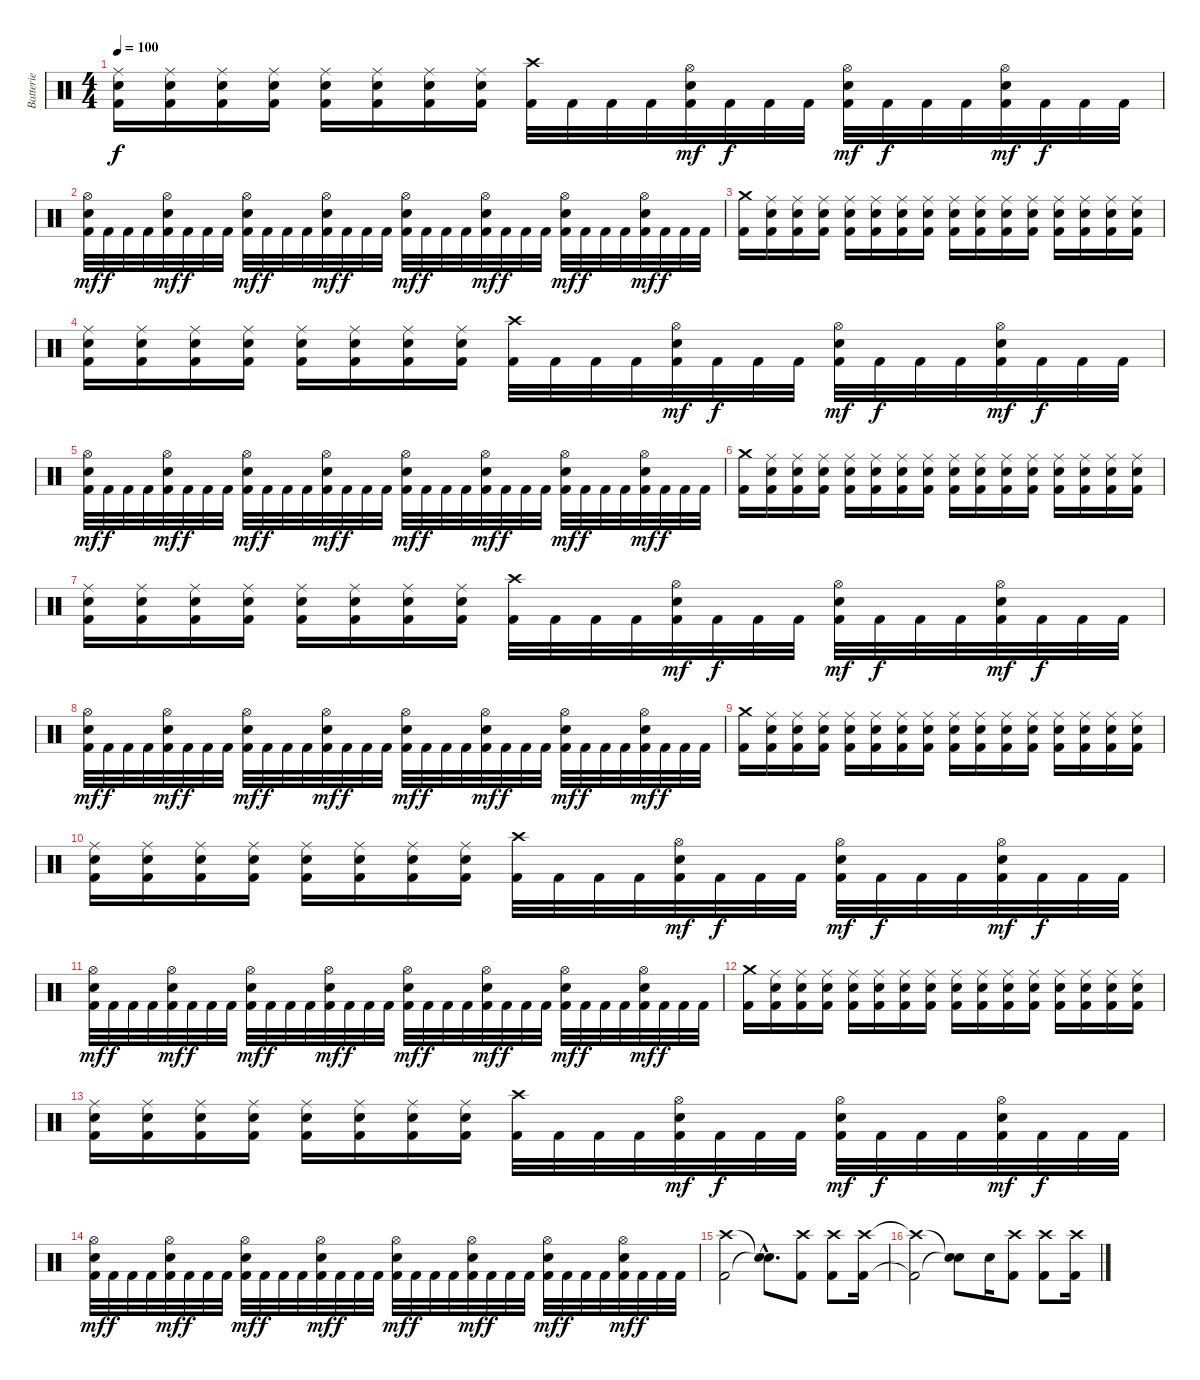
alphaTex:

\track ("Batterie" "Batterie") {instrument percussion}
\staff {score}
\articulation defaults
\ts (4 4)
\tempo 100
\clef neutral
\ks c
("Ride (middle)" "Electric Snare (hit)" "Kick (hit) 2").16{dy f} ("Ride (middle)" "Electric Snare (hit)" "Kick (hit) 2").16 ("Ride (middle)" "Electric Snare (hit)" "Kick (hit) 2").16 ("Ride (middle)" "Electric Snare (hit)" "Kick (hit) 2").16 ("Ride (middle)" "Electric Snare (hit)" "Kick (hit) 2").16 ("Ride (middle)" "Electric Snare (hit)" "Kick (hit) 2").16 ("Ride (middle)" "Electric Snare (hit)" "Kick (hit) 2").16 ("Ride (middle)" "Electric Snare (hit)" "Kick (hit) 2").16 ("Crash high (hit)" "Kick (hit) 2").32 "Kick (hit) 2".32 "Kick (hit) 2".32 "Kick (hit) 2".32 ("Hi-Hat (open)" "Electric Snare (hit)" "Kick (hit) 2").32{dy mf} "Kick (hit) 2".32{dy f} "Kick (hit) 2".32 "Kick (hit) 2".32 ("Hi-Hat (open)" "Electric Snare (hit)" "Kick (hit) 2").32{dy mf} "Kick (hit) 2".32{dy f} "Kick (hit) 2".32 "Kick (hit) 2".32 ("Hi-Hat (open)" "Electric Snare (hit)" "Kick (hit) 2").32{dy mf} "Kick (hit) 2".32{dy f} "Kick (hit) 2".32 "Kick (hit) 2".32 |
("Hi-Hat (open)" "Electric Snare (hit)" "Kick (hit) 2").32{dy mf} "Kick (hit) 2".32{dy f} "Kick (hit) 2".32 "Kick (hit) 2".32 ("Hi-Hat (open)" "Electric Snare (hit)" "Kick (hit) 2").32{dy mf} "Kick (hit) 2".32{dy f} "Kick (hit) 2".32 "Kick (hit) 2".32 ("Hi-Hat (open)" "Electric Snare (hit)" "Kick (hit) 2").32{dy mf} "Kick (hit) 2".32{dy f} "Kick (hit) 2".32 "Kick (hit) 2".32 ("Hi-Hat (open)" "Electric Snare (hit)" "Kick (hit) 2").32{dy mf} "Kick (hit) 2".32{dy f} "Kick (hit) 2".32 "Kick (hit) 2".32 ("Hi-Hat (open)" "Electric Snare (hit)" "Kick (hit) 2").32{dy mf} "Kick (hit) 2".32{dy f} "Kick (hit) 2".32 "Kick (hit) 2".32 ("Hi-Hat (open)" "Electric Snare (hit)" "Kick (hit) 2").32{dy mf} "Kick (hit) 2".32{dy f} "Kick (hit) 2".32 "Kick (hit) 2".32 ("Hi-Hat (open)" "Electric Snare (hit)" "Kick (hit) 2").32{dy mf} "Kick (hit) 2".32{dy f} "Kick (hit) 2".32 "Kick (hit) 2".32 ("Hi-Hat (open)" "Electric Snare (hit)" "Kick (hit) 2").32{dy mf} "Kick (hit) 2".32{dy f} "Kick (hit) 2".32 "Kick (hit) 2".32 |
("Crash medium (hit)" "Kick (hit) 2").16 ("Ride (middle)" "Electric Snare (hit)" "Kick (hit) 2").16 ("Ride (middle)" "Electric Snare (hit)" "Kick (hit) 2").16 ("Ride (middle)" "Electric Snare (hit)" "Kick (hit) 2").16 ("Ride (middle)" "Electric Snare (hit)" "Kick (hit) 2").16 ("Ride (middle)" "Electric Snare (hit)" "Kick (hit) 2").16 ("Ride (middle)" "Electric Snare (hit)" "Kick (hit) 2").16 ("Ride (middle)" "Electric Snare (hit)" "Kick (hit) 2").16 ("Ride (middle)" "Electric Snare (hit)" "Kick (hit) 2").16 ("Ride (middle)" "Electric Snare (hit)" "Kick (hit) 2").16 ("Ride (middle)" "Electric Snare (hit)" "Kick (hit) 2").16 ("Ride (middle)" "Electric Snare (hit)" "Kick (hit) 2").16 ("Ride (middle)" "Electric Snare (hit)" "Kick (hit) 2").16 ("Ride (middle)" "Electric Snare (hit)" "Kick (hit) 2").16 ("Ride (middle)" "Electric Snare (hit)" "Kick (hit) 2").16 ("Ride (middle)" "Electric Snare (hit)" "Kick (hit) 2").16 |
("Ride (middle)" "Electric Snare (hit)" "Kick (hit) 2").16 ("Ride (middle)" "Electric Snare (hit)" "Kick (hit) 2").16 ("Ride (middle)" "Electric Snare (hit)" "Kick (hit) 2").16 ("Ride (middle)" "Electric Snare (hit)" "Kick (hit) 2").16 ("Ride (middle)" "Electric Snare (hit)" "Kick (hit) 2").16 ("Ride (middle)" "Electric Snare (hit)" "Kick (hit) 2").16 ("Ride (middle)" "Electric Snare (hit)" "Kick (hit) 2").16 ("Ride (middle)" "Electric Snare (hit)" "Kick (hit) 2").16 ("Crash high (hit)" "Kick (hit) 2").32 "Kick (hit) 2".32 "Kick (hit) 2".32 "Kick (hit) 2".32 ("Hi-Hat (open)" "Electric Snare (hit)" "Kick (hit) 2").32{dy mf} "Kick (hit) 2".32{dy f} "Kick (hit) 2".32 "Kick (hit) 2".32 ("Hi-Hat (open)" "Electric Snare (hit)" "Kick (hit) 2").32{dy mf} "Kick (hit) 2".32{dy f} "Kick (hit) 2".32 "Kick (hit) 2".32 ("Hi-Hat (open)" "Electric Snare (hit)" "Kick (hit) 2").32{dy mf} "Kick (hit) 2".32{dy f} "Kick (hit) 2".32 "Kick (hit) 2".32 |
("Hi-Hat (open)" "Electric Snare (hit)" "Kick (hit) 2").32{dy mf} "Kick (hit) 2".32{dy f} "Kick (hit) 2".32 "Kick (hit) 2".32 ("Hi-Hat (open)" "Electric Snare (hit)" "Kick (hit) 2").32{dy mf} "Kick (hit) 2".32{dy f} "Kick (hit) 2".32 "Kick (hit) 2".32 ("Hi-Hat (open)" "Electric Snare (hit)" "Kick (hit) 2").32{dy mf} "Kick (hit) 2".32{dy f} "Kick (hit) 2".32 "Kick (hit) 2".32 ("Hi-Hat (open)" "Electric Snare (hit)" "Kick (hit) 2").32{dy mf} "Kick (hit) 2".32{dy f} "Kick (hit) 2".32 "Kick (hit) 2".32 ("Hi-Hat (open)" "Electric Snare (hit)" "Kick (hit) 2").32{dy mf} "Kick (hit) 2".32{dy f} "Kick (hit) 2".32 "Kick (hit) 2".32 ("Hi-Hat (open)" "Electric Snare (hit)" "Kick (hit) 2").32{dy mf} "Kick (hit) 2".32{dy f} "Kick (hit) 2".32 "Kick (hit) 2".32 ("Hi-Hat (open)" "Electric Snare (hit)" "Kick (hit) 2").32{dy mf} "Kick (hit) 2".32{dy f} "Kick (hit) 2".32 "Kick (hit) 2".32 ("Hi-Hat (open)" "Electric Snare (hit)" "Kick (hit) 2").32{dy mf} "Kick (hit) 2".32{dy f} "Kick (hit) 2".32 "Kick (hit) 2".32 |
("Crash medium (hit)" "Kick (hit) 2").16 ("Ride (middle)" "Electric Snare (hit)" "Kick (hit) 2").16 ("Ride (middle)" "Electric Snare (hit)" "Kick (hit) 2").16 ("Ride (middle)" "Electric Snare (hit)" "Kick (hit) 2").16 ("Ride (middle)" "Electric Snare (hit)" "Kick (hit) 2").16 ("Ride (middle)" "Electric Snare (hit)" "Kick (hit) 2").16 ("Ride (middle)" "Electric Snare (hit)" "Kick (hit) 2").16 ("Ride (middle)" "Electric Snare (hit)" "Kick (hit) 2").16 ("Ride (middle)" "Electric Snare (hit)" "Kick (hit) 2").16 ("Ride (middle)" "Electric Snare (hit)" "Kick (hit) 2").16 ("Ride (middle)" "Electric Snare (hit)" "Kick (hit) 2").16 ("Ride (middle)" "Electric Snare (hit)" "Kick (hit) 2").16 ("Ride (middle)" "Electric Snare (hit)" "Kick (hit) 2").16 ("Ride (middle)" "Electric Snare (hit)" "Kick (hit) 2").16 ("Ride (middle)" "Electric Snare (hit)" "Kick (hit) 2").16 ("Ride (middle)" "Electric Snare (hit)" "Kick (hit) 2").16 |
("Ride (middle)" "Electric Snare (hit)" "Kick (hit) 2").16 ("Ride (middle)" "Electric Snare (hit)" "Kick (hit) 2").16 ("Ride (middle)" "Electric Snare (hit)" "Kick (hit) 2").16 ("Ride (middle)" "Electric Snare (hit)" "Kick (hit) 2").16 ("Ride (middle)" "Electric Snare (hit)" "Kick (hit) 2").16 ("Ride (middle)" "Electric Snare (hit)" "Kick (hit) 2").16 ("Ride (middle)" "Electric Snare (hit)" "Kick (hit) 2").16 ("Ride (middle)" "Electric Snare (hit)" "Kick (hit) 2").16 ("Crash high (hit)" "Kick (hit) 2").32 "Kick (hit) 2".32 "Kick (hit) 2".32 "Kick (hit) 2".32 ("Hi-Hat (open)" "Electric Snare (hit)" "Kick (hit) 2").32{dy mf} "Kick (hit) 2".32{dy f} "Kick (hit) 2".32 "Kick (hit) 2".32 ("Hi-Hat (open)" "Electric Snare (hit)" "Kick (hit) 2").32{dy mf} "Kick (hit) 2".32{dy f} "Kick (hit) 2".32 "Kick (hit) 2".32 ("Hi-Hat (open)" "Electric Snare (hit)" "Kick (hit) 2").32{dy mf} "Kick (hit) 2".32{dy f} "Kick (hit) 2".32 "Kick (hit) 2".32 |
("Hi-Hat (open)" "Electric Snare (hit)" "Kick (hit) 2").32{dy mf} "Kick (hit) 2".32{dy f} "Kick (hit) 2".32 "Kick (hit) 2".32 ("Hi-Hat (open)" "Electric Snare (hit)" "Kick (hit) 2").32{dy mf} "Kick (hit) 2".32{dy f} "Kick (hit) 2".32 "Kick (hit) 2".32 ("Hi-Hat (open)" "Electric Snare (hit)" "Kick (hit) 2").32{dy mf} "Kick (hit) 2".32{dy f} "Kick (hit) 2".32 "Kick (hit) 2".32 ("Hi-Hat (open)" "Electric Snare (hit)" "Kick (hit) 2").32{dy mf} "Kick (hit) 2".32{dy f} "Kick (hit) 2".32 "Kick (hit) 2".32 ("Hi-Hat (open)" "Electric Snare (hit)" "Kick (hit) 2").32{dy mf} "Kick (hit) 2".32{dy f} "Kick (hit) 2".32 "Kick (hit) 2".32 ("Hi-Hat (open)" "Electric Snare (hit)" "Kick (hit) 2").32{dy mf} "Kick (hit) 2".32{dy f} "Kick (hit) 2".32 "Kick (hit) 2".32 ("Hi-Hat (open)" "Electric Snare (hit)" "Kick (hit) 2").32{dy mf} "Kick (hit) 2".32{dy f} "Kick (hit) 2".32 "Kick (hit) 2".32 ("Hi-Hat (open)" "Electric Snare (hit)" "Kick (hit) 2").32{dy mf} "Kick (hit) 2".32{dy f} "Kick (hit) 2".32 "Kick (hit) 2".32 |
("Crash medium (hit)" "Kick (hit) 2").16 ("Ride (middle)" "Electric Snare (hit)" "Kick (hit) 2").16 ("Ride (middle)" "Electric Snare (hit)" "Kick (hit) 2").16 ("Ride (middle)" "Electric Snare (hit)" "Kick (hit) 2").16 ("Ride (middle)" "Electric Snare (hit)" "Kick (hit) 2").16 ("Ride (middle)" "Electric Snare (hit)" "Kick (hit) 2").16 ("Ride (middle)" "Electric Snare (hit)" "Kick (hit) 2").16 ("Ride (middle)" "Electric Snare (hit)" "Kick (hit) 2").16 ("Ride (middle)" "Electric Snare (hit)" "Kick (hit) 2").16 ("Ride (middle)" "Electric Snare (hit)" "Kick (hit) 2").16 ("Ride (middle)" "Electric Snare (hit)" "Kick (hit) 2").16 ("Ride (middle)" "Electric Snare (hit)" "Kick (hit) 2").16 ("Ride (middle)" "Electric Snare (hit)" "Kick (hit) 2").16 ("Ride (middle)" "Electric Snare (hit)" "Kick (hit) 2").16 ("Ride (middle)" "Electric Snare (hit)" "Kick (hit) 2").16 ("Ride (middle)" "Electric Snare (hit)" "Kick (hit) 2").16 |
("Ride (middle)" "Electric Snare (hit)" "Kick (hit) 2").16 ("Ride (middle)" "Electric Snare (hit)" "Kick (hit) 2").16 ("Ride (middle)" "Electric Snare (hit)" "Kick (hit) 2").16 ("Ride (middle)" "Electric Snare (hit)" "Kick (hit) 2").16 ("Ride (middle)" "Electric Snare (hit)" "Kick (hit) 2").16 ("Ride (middle)" "Electric Snare (hit)" "Kick (hit) 2").16 ("Ride (middle)" "Electric Snare (hit)" "Kick (hit) 2").16 ("Ride (middle)" "Electric Snare (hit)" "Kick (hit) 2").16 ("Crash high (hit)" "Kick (hit) 2").32 "Kick (hit) 2".32 "Kick (hit) 2".32 "Kick (hit) 2".32 ("Hi-Hat (open)" "Electric Snare (hit)" "Kick (hit) 2").32{dy mf} "Kick (hit) 2".32{dy f} "Kick (hit) 2".32 "Kick (hit) 2".32 ("Hi-Hat (open)" "Electric Snare (hit)" "Kick (hit) 2").32{dy mf} "Kick (hit) 2".32{dy f} "Kick (hit) 2".32 "Kick (hit) 2".32 ("Hi-Hat (open)" "Electric Snare (hit)" "Kick (hit) 2").32{dy mf} "Kick (hit) 2".32{dy f} "Kick (hit) 2".32 "Kick (hit) 2".32 |
("Hi-Hat (open)" "Electric Snare (hit)" "Kick (hit) 2").32{dy mf} "Kick (hit) 2".32{dy f} "Kick (hit) 2".32 "Kick (hit) 2".32 ("Hi-Hat (open)" "Electric Snare (hit)" "Kick (hit) 2").32{dy mf} "Kick (hit) 2".32{dy f} "Kick (hit) 2".32 "Kick (hit) 2".32 ("Hi-Hat (open)" "Electric Snare (hit)" "Kick (hit) 2").32{dy mf} "Kick (hit) 2".32{dy f} "Kick (hit) 2".32 "Kick (hit) 2".32 ("Hi-Hat (open)" "Electric Snare (hit)" "Kick (hit) 2").32{dy mf} "Kick (hit) 2".32{dy f} "Kick (hit) 2".32 "Kick (hit) 2".32 ("Hi-Hat (open)" "Electric Snare (hit)" "Kick (hit) 2").32{dy mf} "Kick (hit) 2".32{dy f} "Kick (hit) 2".32 "Kick (hit) 2".32 ("Hi-Hat (open)" "Electric Snare (hit)" "Kick (hit) 2").32{dy mf} "Kick (hit) 2".32{dy f} "Kick (hit) 2".32 "Kick (hit) 2".32 ("Hi-Hat (open)" "Electric Snare (hit)" "Kick (hit) 2").32{dy mf} "Kick (hit) 2".32{dy f} "Kick (hit) 2".32 "Kick (hit) 2".32 ("Hi-Hat (open)" "Electric Snare (hit)" "Kick (hit) 2").32{dy mf} "Kick (hit) 2".32{dy f} "Kick (hit) 2".32 "Kick (hit) 2".32 |
("Crash medium (hit)" "Kick (hit) 2").16 ("Ride (middle)" "Electric Snare (hit)" "Kick (hit) 2").16 ("Ride (middle)" "Electric Snare (hit)" "Kick (hit) 2").16 ("Ride (middle)" "Electric Snare (hit)" "Kick (hit) 2").16 ("Ride (middle)" "Electric Snare (hit)" "Kick (hit) 2").16 ("Ride (middle)" "Electric Snare (hit)" "Kick (hit) 2").16 ("Ride (middle)" "Electric Snare (hit)" "Kick (hit) 2").16 ("Ride (middle)" "Electric Snare (hit)" "Kick (hit) 2").16 ("Ride (middle)" "Electric Snare (hit)" "Kick (hit) 2").16 ("Ride (middle)" "Electric Snare (hit)" "Kick (hit) 2").16 ("Ride (middle)" "Electric Snare (hit)" "Kick (hit) 2").16 ("Ride (middle)" "Electric Snare (hit)" "Kick (hit) 2").16 ("Ride (middle)" "Electric Snare (hit)" "Kick (hit) 2").16 ("Ride (middle)" "Electric Snare (hit)" "Kick (hit) 2").16 ("Ride (middle)" "Electric Snare (hit)" "Kick (hit) 2").16 ("Ride (middle)" "Electric Snare (hit)" "Kick (hit) 2").16 |
("Ride (middle)" "Electric Snare (hit)" "Kick (hit) 2").16 ("Ride (middle)" "Electric Snare (hit)" "Kick (hit) 2").16 ("Ride (middle)" "Electric Snare (hit)" "Kick (hit) 2").16 ("Ride (middle)" "Electric Snare (hit)" "Kick (hit) 2").16 ("Ride (middle)" "Electric Snare (hit)" "Kick (hit) 2").16 ("Ride (middle)" "Electric Snare (hit)" "Kick (hit) 2").16 ("Ride (middle)" "Electric Snare (hit)" "Kick (hit) 2").16 ("Ride (middle)" "Electric Snare (hit)" "Kick (hit) 2").16 ("Crash high (hit)" "Kick (hit) 2").32 "Kick (hit) 2".32 "Kick (hit) 2".32 "Kick (hit) 2".32 ("Hi-Hat (open)" "Electric Snare (hit)" "Kick (hit) 2").32{dy mf} "Kick (hit) 2".32{dy f} "Kick (hit) 2".32 "Kick (hit) 2".32 ("Hi-Hat (open)" "Electric Snare (hit)" "Kick (hit) 2").32{dy mf} "Kick (hit) 2".32{dy f} "Kick (hit) 2".32 "Kick (hit) 2".32 ("Hi-Hat (open)" "Electric Snare (hit)" "Kick (hit) 2").32{dy mf} "Kick (hit) 2".32{dy f} "Kick (hit) 2".32 "Kick (hit) 2".32 |
("Hi-Hat (open)" "Electric Snare (hit)" "Kick (hit) 2").32{dy mf} "Kick (hit) 2".32{dy f} "Kick (hit) 2".32 "Kick (hit) 2".32 ("Hi-Hat (open)" "Electric Snare (hit)" "Kick (hit) 2").32{dy mf} "Kick (hit) 2".32{dy f} "Kick (hit) 2".32 "Kick (hit) 2".32 ("Hi-Hat (open)" "Electric Snare (hit)" "Kick (hit) 2").32{dy mf} "Kick (hit) 2".32{dy f} "Kick (hit) 2".32 "Kick (hit) 2".32 ("Hi-Hat (open)" "Electric Snare (hit)" "Kick (hit) 2").32{dy mf} "Kick (hit) 2".32{dy f} "Kick (hit) 2".32 "Kick (hit) 2".32 ("Hi-Hat (open)" "Electric Snare (hit)" "Kick (hit) 2").32{dy mf} "Kick (hit) 2".32{dy f} "Kick (hit) 2".32 "Kick (hit) 2".32 ("Hi-Hat (open)" "Electric Snare (hit)" "Kick (hit) 2").32{dy mf} "Kick (hit) 2".32{dy f} "Kick (hit) 2".32 "Kick (hit) 2".32 ("Hi-Hat (open)" "Electric Snare (hit)" "Kick (hit) 2").32{dy mf} "Kick (hit) 2".32{dy f} "Kick (hit) 2".32 "Kick (hit) 2".32 ("Hi-Hat (open)" "Electric Snare (hit)" "Kick (hit) 2").32{dy mf} "Kick (hit) 2".32{dy f} "Kick (hit) 2".32 "Kick (hit) 2".32 |
("Crash high (hit)" "Kick (hit) 2").2 ("Snare (hit)"{hac t} "Snare (hit)"{hac t}).8{d} ("Crash high (hit)" "Kick (hit) 2").8 ("Crash high (hit)" "Kick (hit) 2").8 ("Crash high (hit)" "Kick (hit) 2").16 |
("Crash high (hit)"{t} "Kick (hit) 2"{t}).2 ("Snare (hit)"{t} "Snare (hit)"{t}).8 "Electric Snare (hit)".16 ("Crash high (hit)" "Kick (hit) 2").8 ("Crash high (hit)" "Kick (hit) 2").8 ("Crash high (hit)" "Kick (hit) 2").16
